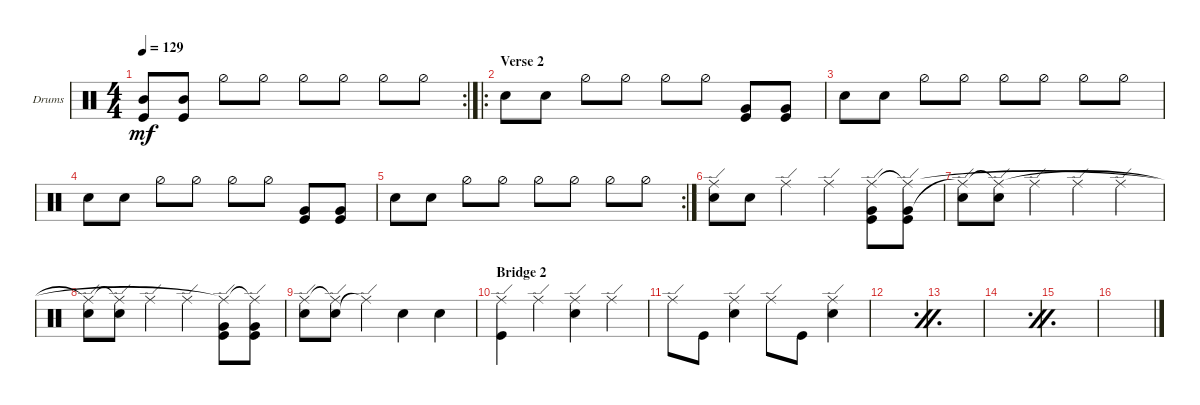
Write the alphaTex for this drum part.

\bracketExtendMode groupsimilarinstruments
\firstSystemTrackNameOrientation horizontal
\otherSystemsTrackNameOrientation horizontal
\track ("Drumkit" "Drums") {instrument percussion}
\staff {score}
\articulation defaults
\rc 2
\ts (4 4)
\tempo 129
\clef neutral
\ks c
("Kick (hit)" "Mid Tom (hit)").8{dy mf} ("Mid Tom (hit)" "Kick (hit)").8 "Hi-Hat (half)".8 "Hi-Hat (half)".8 "Hi-Hat (half)".8 "Hi-Hat (half)".8 "Hi-Hat (half)".8 "Hi-Hat (half)".8 |
\ro
\section ("" "Verse 2")
"Snare (hit) 2".8 "Snare (hit) 2".8 "Hi-Hat (half)".8 "Hi-Hat (half)".8 "Hi-Hat (half)".8 "Hi-Hat (half)".8 ("Kick (hit)" "Very Low Tom (hit)").8 ("Kick (hit)" "Very Low Tom (hit)").8 |
"Snare (hit) 2".8 "Snare (hit) 2".8 "Hi-Hat (half)".8 "Hi-Hat (half)".8 "Hi-Hat (half)".8 "Hi-Hat (half)".8 "Hi-Hat (half)".8 "Hi-Hat (half)".8 |
"Snare (hit) 2".8 "Snare (hit) 2".8 "Hi-Hat (half)".8 "Hi-Hat (half)".8 "Hi-Hat (half)".8 "Hi-Hat (half)".8 ("Kick (hit)" "Very Low Tom (hit)").8 ("Kick (hit)" "Very Low Tom (hit)").8 |
\rc 2 "Snare (hit) 2".8 "Snare (hit) 2".8 "Hi-Hat (half)".8 "Hi-Hat (half)".8 "Hi-Hat (half)".8 "Hi-Hat (half)".8 "Hi-Hat (half)".8 "Hi-Hat (half)".8
|
("Snare (hit) 2" "Ride (edge)").8 "Snare (hit) 2".8 "Ride (edge)".4 "Ride (edge)".4 ("Kick (hit)" "Very Low Tom (hit)" "Ride (edge)").8 ("Kick (hit)" "Very Low Tom (hit)" "Ride (edge)"{t}).8 |
("Snare (hit) 2" "Ride (edge)"{t}).8 ("Snare (hit) 2" "Ride (edge)"{t}).8 "Ride (edge)".4 "Ride (edge)".4 "Ride (edge)".4 |
("Snare (hit) 2" "Ride (edge)"{t}).8 ("Snare (hit) 2" "Ride (edge)"{t}).8 "Ride (edge)".4 "Ride (edge)".4 ("Kick (hit)" "Very Low Tom (hit)" "Ride (edge)"{t}).8 ("Kick (hit)" "Very Low Tom (hit)" "Ride (edge)"{t}).8 |
("Snare (hit) 2" "Ride (edge)").8 ("Snare (hit) 2" "Ride (edge)"{t}).8 "Ride (edge)"{t}.4 "Snare (hit) 2".4 "Snare (hit) 2".4 |
\section ("" "Bridge 2")
("Ride (edge)" "Kick (hit)").4 "Ride (edge)".4 ("Ride (edge)" "Snare (hit) 2").4 "Ride (edge)".4 |
"Ride (edge)".8 "Kick (hit)".8 ("Ride (edge)" "Snare (hit) 2").4 "Ride (edge)".8 "Kick (hit)".8 ("Ride (edge)" "Snare (hit) 2").4 |
\simile firstofdouble
|
\simile secondofdouble
|
\simile firstofdouble
|
\simile secondofdouble
|
\simile firstofdouble
